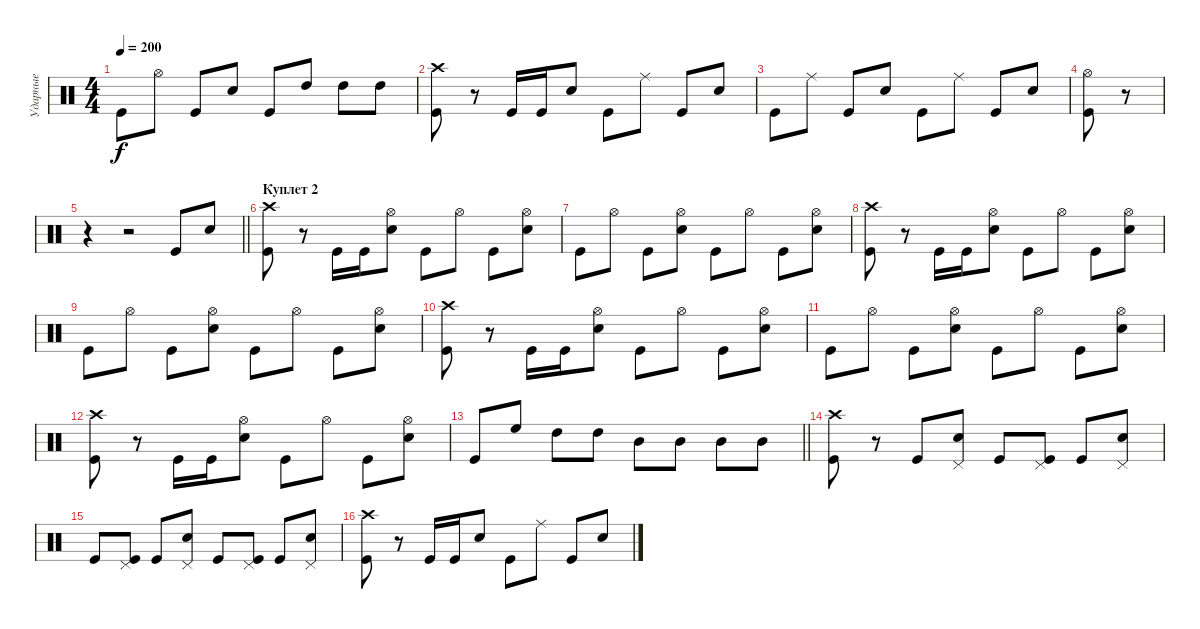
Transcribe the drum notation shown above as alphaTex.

\track ("Ударные" "Ударные") {instrument percussion}
\staff {score}
\articulation defaults
\ts (4 4)
\tempo 200
\clef neutral
\ks c "Kick (hit)".8{dy f} "Hi-Hat (open)".8 "Kick (hit)".8 "Snare (hit) 2".8 "Kick (hit)".8 "High Tom (hit)".8 "High Tom (hit)".8 "High Tom (hit)".8
|
("Crash high (hit)" "Kick (hit)").8 r.8 "Kick (hit)".16 "Kick (hit)".16 "Snare (hit) 2".8 "Kick (hit)".8 "Ride (middle)".8 "Kick (hit)".8 "Snare (hit) 2".8 |
"Kick (hit)".8 "Ride (middle)".8 "Kick (hit)".8 "Snare (hit) 2".8 "Kick (hit)".8 "Ride (middle)".8 "Kick (hit)".8 "Snare (hit) 2".8 |
("Hi-Hat (open)" "Kick (hit)").8 r.8 |
\barLineRight lightlight
r.4 r.2 "Kick (hit)".8 "Snare (hit) 2".8 |
\section ("" "Куплет 2")
("Crash high (hit)" "Kick (hit)").8 r.8 "Kick (hit)".16 "Kick (hit)".16 ("Hi-Hat (open)" "Snare (hit) 2").8 "Kick (hit)".8 "Hi-Hat (open)".8 "Kick (hit)".8 ("Hi-Hat (open)" "Snare (hit) 2").8 |
"Kick (hit)".8 "Hi-Hat (open)".8 "Kick (hit)".8 ("Hi-Hat (open)" "Snare (hit) 2").8 "Kick (hit)".8 "Hi-Hat (open)".8 "Kick (hit)".8 ("Hi-Hat (open)" "Snare (hit) 2").8 |
("Crash high (hit)" "Kick (hit)").8 r.8 "Kick (hit)".16 "Kick (hit)".16 ("Hi-Hat (open)" "Snare (hit) 2").8 "Kick (hit)".8 "Hi-Hat (open)".8 "Kick (hit)".8 ("Hi-Hat (open)" "Snare (hit) 2").8 |
"Kick (hit)".8 "Hi-Hat (open)".8 "Kick (hit)".8 ("Hi-Hat (open)" "Snare (hit) 2").8 "Kick (hit)".8 "Hi-Hat (open)".8 "Kick (hit)".8 ("Hi-Hat (open)" "Snare (hit) 2").8 |
("Crash high (hit)" "Kick (hit)").8 r.8 "Kick (hit)".16 "Kick (hit)".16 ("Hi-Hat (open)" "Snare (hit) 2").8 "Kick (hit)".8 "Hi-Hat (open)".8 "Kick (hit)".8 ("Hi-Hat (open)" "Snare (hit) 2").8 |
"Kick (hit)".8 "Hi-Hat (open)".8 "Kick (hit)".8 ("Hi-Hat (open)" "Snare (hit) 2").8 "Kick (hit)".8 "Hi-Hat (open)".8 "Kick (hit)".8 ("Hi-Hat (open)" "Snare (hit) 2").8 |
("Crash high (hit)" "Kick (hit)").8 r.8 "Kick (hit)".16 "Kick (hit)".16 ("Hi-Hat (open)" "Snare (hit) 2").8 "Kick (hit)".8 "Hi-Hat (open)".8 "Kick (hit)".8 ("Hi-Hat (open)" "Snare (hit) 2").8 |
\barLineRight lightlight "Kick (hit)".8 "High Floor Tom (hit)".8 "High Tom (hit)".8 "High Tom (hit)".8 "Mid Tom (hit)".8 "Mid Tom (hit)".8 "Mid Tom (hit)".8 "Mid Tom (hit)".8
|
("Crash high (hit)" "Kick (hit)").8 r.8 "Kick (hit)".8 ("Pedal Hi-Hat (hit)" "Snare (hit) 2").8 "Kick (hit)".8 ("Pedal Hi-Hat (hit)" "Kick (hit)").8 "Kick (hit)".8 ("Pedal Hi-Hat (hit)" "Snare (hit) 2").8 |
"Kick (hit)".8 ("Pedal Hi-Hat (hit)" "Kick (hit)").8 "Kick (hit)".8 ("Pedal Hi-Hat (hit)" "Snare (hit) 2").8 "Kick (hit)".8 ("Pedal Hi-Hat (hit)" "Kick (hit)").8 "Kick (hit)".8 ("Pedal Hi-Hat (hit)" "Snare (hit) 2").8 |
("Crash high (hit)" "Kick (hit)").8 r.8 "Kick (hit)".16 "Kick (hit)".16 "Snare (hit) 2".8 "Kick (hit)".8 "Ride (middle)".8 "Kick (hit)".8 "Snare (hit) 2".8
